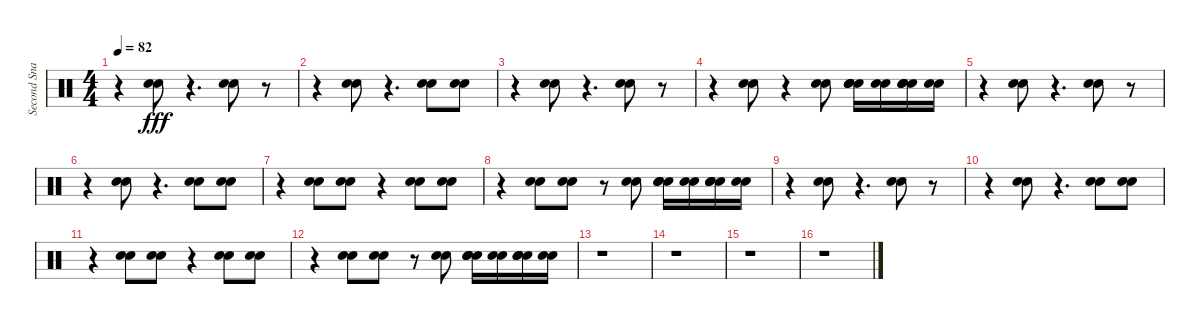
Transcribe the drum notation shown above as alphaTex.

\track ("Second Snare" "Second Sna") {instrument percussion}
\staff {score}
\articulation defaults
\ts (4 4)
\tempo 82
\clef neutral
\ks c
r.4{dy fff} ("Snare (hit) 2" "Electric Snare (hit)").8 r.4{d} ("Snare (hit) 2" "Electric Snare (hit)").8 r.8 |
r.4 ("Snare (hit) 2" "Electric Snare (hit)").8 r.4{d} ("Snare (hit) 2" "Electric Snare (hit)").8 ("Snare (hit) 2" "Electric Snare (hit)").8 |
r.4 ("Snare (hit) 2" "Electric Snare (hit)").8 r.4{d} ("Snare (hit) 2" "Electric Snare (hit)").8 r.8 |
r.4 ("Snare (hit) 2" "Electric Snare (hit)").8 r.4 ("Snare (hit) 2" "Electric Snare (hit)").8 ("Snare (hit) 2" "Snare (hit) 2" "Electric Snare (hit)" "Electric Snare (hit)").16 ("Snare (hit) 2" "Electric Snare (hit)").16 ("Snare (hit) 2" "Snare (hit) 2" "Electric Snare (hit)" "Electric Snare (hit)").16 ("Snare (hit) 2" "Electric Snare (hit)").16 |
r.4 ("Snare (hit) 2" "Electric Snare (hit)").8 r.4{d} ("Snare (hit) 2" "Electric Snare (hit)").8 r.8 |
r.4 ("Snare (hit) 2" "Electric Snare (hit)").8 r.4{d} ("Snare (hit) 2" "Electric Snare (hit)").8 ("Snare (hit) 2" "Electric Snare (hit)").8 |
r.4 ("Snare (hit) 2" "Electric Snare (hit)").8 ("Snare (hit) 2" "Electric Snare (hit)").8 r.4 ("Snare (hit) 2" "Electric Snare (hit)").8 ("Snare (hit) 2" "Electric Snare (hit)").8 |
r.4 ("Snare (hit) 2" "Electric Snare (hit)").8 ("Snare (hit) 2" "Electric Snare (hit)").8 r.8 ("Snare (hit) 2" "Electric Snare (hit)").8 ("Snare (hit) 2" "Snare (hit) 2" "Electric Snare (hit)" "Electric Snare (hit)").16 ("Snare (hit) 2" "Electric Snare (hit)").16 ("Snare (hit) 2" "Snare (hit) 2" "Electric Snare (hit)" "Electric Snare (hit)").16 ("Snare (hit) 2" "Electric Snare (hit)").16 |
r.4 ("Snare (hit) 2" "Electric Snare (hit)").8 r.4{d} ("Snare (hit) 2" "Electric Snare (hit)").8 r.8 |
r.4 ("Snare (hit) 2" "Electric Snare (hit)").8 r.4{d} ("Snare (hit) 2" "Electric Snare (hit)").8 ("Snare (hit) 2" "Electric Snare (hit)").8 |
r.4 ("Snare (hit) 2" "Electric Snare (hit)").8 ("Snare (hit) 2" "Electric Snare (hit)").8 r.4 ("Snare (hit) 2" "Electric Snare (hit)").8 ("Snare (hit) 2" "Electric Snare (hit)").8 |
r.4 ("Snare (hit) 2" "Electric Snare (hit)").8 ("Snare (hit) 2" "Electric Snare (hit)").8 r.8 ("Snare (hit) 2" "Electric Snare (hit)").8 ("Snare (hit) 2" "Snare (hit) 2" "Electric Snare (hit)" "Electric Snare (hit)").16 ("Snare (hit) 2" "Electric Snare (hit)").16 ("Snare (hit) 2" "Snare (hit) 2" "Electric Snare (hit)" "Electric Snare (hit)").16 ("Snare (hit) 2" "Electric Snare (hit)").16 |
r.1 |
r.1 |
r.1 |
r.1
